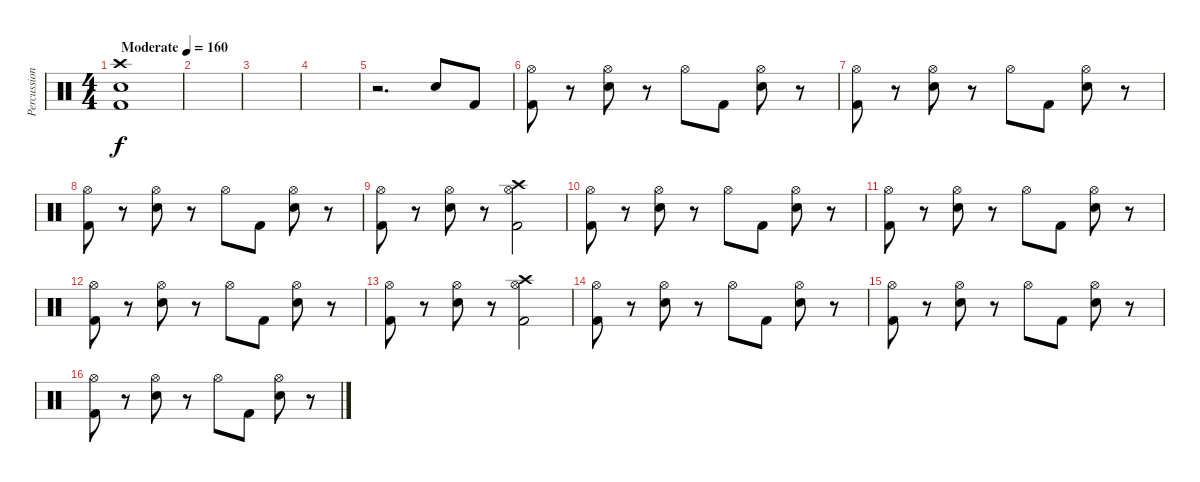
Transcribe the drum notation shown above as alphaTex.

\track ("Percussion" "Percussion") {instrument percussion}
\staff {score}
\articulation defaults
\ts (4 4)
\tempo (160 "Moderate")
\clef neutral
\ks c
("Crash high (hit)" "Kick (hit) 2" "Snare (hit) 2").1{dy f} |
|
|
|
r.2{d} "Snare (hit) 2".8 "Kick (hit) 2".8 |
("Hi-Hat (open)" "Kick (hit) 2").8 r.8 ("Hi-Hat (open)" "Snare (hit) 2").8 r.8 "Hi-Hat (open)".8 "Kick (hit) 2".8 ("Hi-Hat (open)" "Snare (hit) 2").8 r.8 |
("Hi-Hat (open)" "Kick (hit) 2").8 r.8 ("Hi-Hat (open)" "Snare (hit) 2").8 r.8 "Hi-Hat (open)".8 "Kick (hit) 2".8 ("Hi-Hat (open)" "Snare (hit) 2").8 r.8 |
("Hi-Hat (open)" "Kick (hit) 2").8 r.8 ("Hi-Hat (open)" "Snare (hit) 2").8 r.8 "Hi-Hat (open)".8 "Kick (hit) 2".8 ("Hi-Hat (open)" "Snare (hit) 2").8 r.8 |
("Hi-Hat (open)" "Kick (hit) 2").8 r.8 ("Hi-Hat (open)" "Snare (hit) 2").8 r.8 ("Crash high (hit)" "Hi-Hat (open)" "Kick (hit) 2").2 |
("Hi-Hat (open)" "Kick (hit) 2").8 r.8 ("Hi-Hat (open)" "Snare (hit) 2").8 r.8 "Hi-Hat (open)".8 "Kick (hit) 2".8 ("Hi-Hat (open)" "Snare (hit) 2").8 r.8 |
("Hi-Hat (open)" "Kick (hit) 2").8 r.8 ("Hi-Hat (open)" "Snare (hit) 2").8 r.8 "Hi-Hat (open)".8 "Kick (hit) 2".8 ("Hi-Hat (open)" "Snare (hit) 2").8 r.8 |
("Hi-Hat (open)" "Kick (hit) 2").8 r.8 ("Hi-Hat (open)" "Snare (hit) 2").8 r.8 "Hi-Hat (open)".8 "Kick (hit) 2".8 ("Hi-Hat (open)" "Snare (hit) 2").8 r.8 |
("Hi-Hat (open)" "Kick (hit) 2").8 r.8 ("Hi-Hat (open)" "Snare (hit) 2").8 r.8 ("Crash high (hit)" "Hi-Hat (open)" "Kick (hit) 2").2 |
("Hi-Hat (open)" "Kick (hit) 2").8 r.8 ("Hi-Hat (open)" "Snare (hit) 2").8 r.8 "Hi-Hat (open)".8 "Kick (hit) 2".8 ("Hi-Hat (open)" "Snare (hit) 2").8 r.8 |
("Hi-Hat (open)" "Kick (hit) 2").8 r.8 ("Hi-Hat (open)" "Snare (hit) 2").8 r.8 "Hi-Hat (open)".8 "Kick (hit) 2".8 ("Hi-Hat (open)" "Snare (hit) 2").8 r.8 |
("Hi-Hat (open)" "Kick (hit) 2").8 r.8 ("Hi-Hat (open)" "Snare (hit) 2").8 r.8 "Hi-Hat (open)".8 "Kick (hit) 2".8 ("Hi-Hat (open)" "Snare (hit) 2").8 r.8
